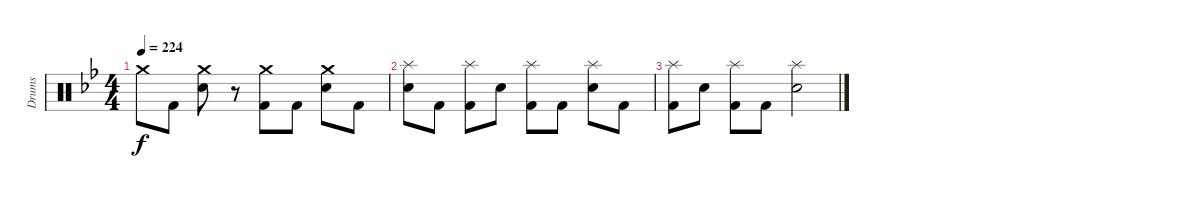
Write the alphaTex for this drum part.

\track ("Drums" "Drums") {instrument percussion}
\staff {score}
\articulation defaults
\ts (4 4)
\tempo 224
\clef neutral
\ks bb "Crash medium (hit)".8{dy f} "Kick (hit) 2".8
("Crash medium (hit)" "Electric Snare (hit)").8 r.8 ("Crash medium (hit)" "Kick (hit) 2").8 "Kick (hit) 2".8 ("Crash medium (hit)" "Electric Snare (hit)").8 "Kick (hit) 2".8 |
("Splash (hit)" "Electric Snare (hit)").8 "Kick (hit) 2".8 ("Splash (hit)" "Kick (hit) 2").8 "Electric Snare (hit)".8 ("Splash (hit)" "Kick (hit) 2").8 "Kick (hit) 2".8 ("Splash (hit)" "Electric Snare (hit)").8 "Kick (hit) 2".8 |
("Splash (hit)" "Kick (hit) 2").8 "Electric Snare (hit)".8 ("Splash (hit)" "Kick (hit) 2").8 "Kick (hit) 2".8 ("Splash (hit)" "Electric Snare (hit)").2
